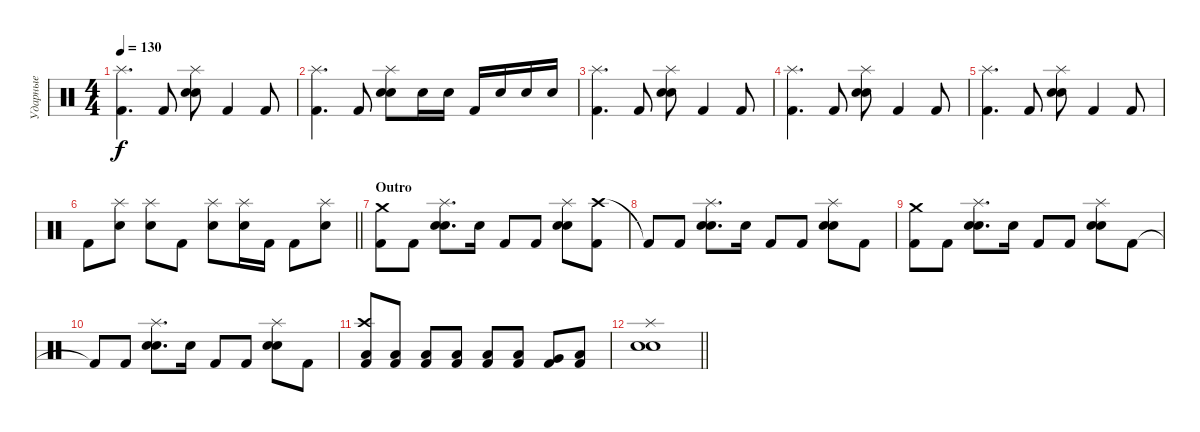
\track ("Ударные" "Ударные") {instrument percussion}
\staff {score}
\articulation defaults
\ts (4 4)
\tempo 130
\clef neutral
\ks c
("Splash (hit)" "Kick (hit) 2").4{d dy f} "Kick (hit) 2".8 ("Splash (hit)" "Electric Snare (hit)" "Snare (hit) 2").8 "Kick (hit) 2".4 "Kick (hit) 2".8 |
("Splash (hit)" "Kick (hit) 2").4{d} "Kick (hit) 2".8 ("Splash (hit)" "Electric Snare (hit)" "Snare (hit) 2").8 "Electric Snare (hit)".16 "Electric Snare (hit)".16 "Kick (hit) 2".16 "Electric Snare (hit)".16 "Electric Snare (hit)".16 "Electric Snare (hit)".16 |
("Splash (hit)" "Kick (hit) 2").4{d} "Kick (hit) 2".8 ("Splash (hit)" "Electric Snare (hit)" "Snare (hit) 2").8 "Kick (hit) 2".4 "Kick (hit) 2".8 |
("Splash (hit)" "Kick (hit) 2").4{d} "Kick (hit) 2".8 ("Splash (hit)" "Electric Snare (hit)" "Snare (hit) 2").8 "Kick (hit) 2".4 "Kick (hit) 2".8 |
("Splash (hit)" "Kick (hit) 2").4{d} "Kick (hit) 2".8 ("Splash (hit)" "Electric Snare (hit)" "Snare (hit) 2").8 "Kick (hit) 2".4 "Kick (hit) 2".8 |
\barLineRight lightlight "Kick (hit) 2".8
("Splash (hit)" "Electric Snare (hit)").8 ("Splash (hit)" "Electric Snare (hit)").8 "Kick (hit) 2".8 ("Splash (hit)" "Electric Snare (hit)").8 ("Splash (hit)" "Electric Snare (hit)").16 "Kick (hit) 2".16 "Kick (hit) 2".8 ("Splash (hit)" "Electric Snare (hit)").8 |
\section ("" "Outro")
("Crash medium (hit)" "Kick (hit) 2").8 "Kick (hit) 2".8 ("Splash (hit)" "Electric Snare (hit)" "Snare (hit) 2").8{d} "Electric Snare (hit)".16 "Kick (hit) 2".8 "Kick (hit) 2".8 ("Splash (hit)" "Electric Snare (hit)" "Snare (hit) 2").8 ("Crash high (hit)" "Kick (hit) 2").8 |
"Kick (hit) 2"{t}.8 "Kick (hit) 2".8 ("Splash (hit)" "Electric Snare (hit)" "Snare (hit) 2").8{d} "Electric Snare (hit)".16 "Kick (hit) 2".8 "Kick (hit) 2".8 ("Splash (hit)" "Electric Snare (hit)" "Snare (hit) 2").8 "Kick (hit) 2".8 |
("Crash medium (hit)" "Kick (hit) 2").8 "Kick (hit) 2".8 ("Splash (hit)" "Electric Snare (hit)" "Snare (hit) 2").8{d} "Electric Snare (hit)".16 "Kick (hit) 2".8 "Kick (hit) 2".8 ("Splash (hit)" "Electric Snare (hit)" "Snare (hit) 2").8 "Kick (hit) 2".8 |
"Kick (hit) 2"{t}.8 "Kick (hit) 2".8 ("Splash (hit)" "Electric Snare (hit)" "Snare (hit) 2").8{d} "Electric Snare (hit)".16 "Kick (hit) 2".8 "Kick (hit) 2".8 ("Splash (hit)" "Electric Snare (hit)" "Snare (hit) 2").8 "Kick (hit) 2".8 |
("Crash high (hit)" "Low Tom (hit)" "Kick (hit) 2").8 ("Low Tom (hit)" "Kick (hit) 2").8 ("Low Tom (hit)" "Kick (hit) 2").8 ("Low Tom (hit)" "Kick (hit) 2").8 ("Low Tom (hit)" "Kick (hit) 2").8 ("Low Tom (hit)" "Kick (hit) 2").8 ("Very Low Tom (hit)" "Kick (hit) 2").8 ("Low Floor Tom (hit)" "Kick (hit) 2").8 |
\barLineRight lightlight
("Splash (hit)" "Electric Snare (hit)" "Snare (hit) 2").1
